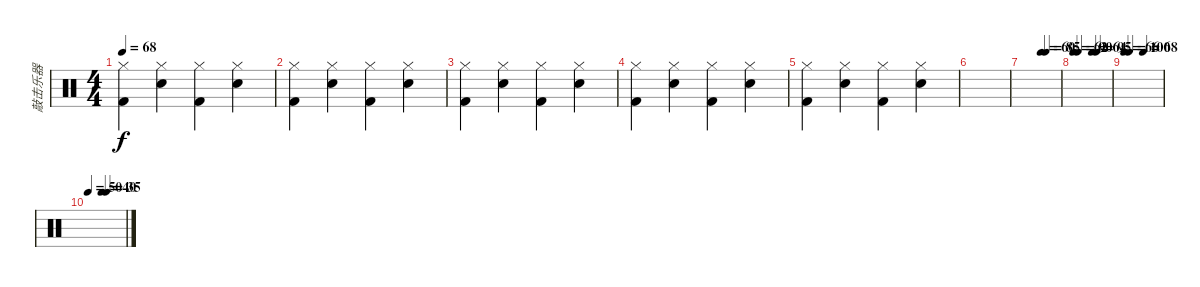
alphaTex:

\track ("敲击乐器" "敲击乐器") {instrument percussion}
\staff {score}
\articulation defaults
\ts (4 4)
\tempo 68
\clef neutral
\ks c
("Kick (hit) 2" "Hi-Hat (closed)").4{dy f} ("Snare (hit) 2" "Hi-Hat (closed)").4 ("Kick (hit) 2" "Hi-Hat (closed)").4 ("Snare (hit) 2" "Hi-Hat (closed)").4 |
("Kick (hit) 2" "Hi-Hat (closed)").4 ("Snare (hit) 2" "Hi-Hat (closed)").4 ("Kick (hit) 2" "Hi-Hat (closed)").4 ("Snare (hit) 2" "Hi-Hat (closed)").4 |
("Kick (hit) 2" "Hi-Hat (closed)").4 ("Snare (hit) 2" "Hi-Hat (closed)").4 ("Kick (hit) 2" "Hi-Hat (closed)").4 ("Snare (hit) 2" "Hi-Hat (closed)").4 |
("Kick (hit) 2" "Hi-Hat (closed)").4 ("Snare (hit) 2" "Hi-Hat (closed)").4 ("Kick (hit) 2" "Hi-Hat (closed)").4 ("Snare (hit) 2" "Hi-Hat (closed)").4 |
("Kick (hit) 2" "Hi-Hat (closed)").4 ("Snare (hit) 2" "Hi-Hat (closed)").4 ("Kick (hit) 2" "Hi-Hat (closed)").4 ("Snare (hit) 2" "Hi-Hat (closed)").4 |
|
\tempo (60 0.5)
\tempo (85 0.625)
|
\tempo 62
\tempo (90 0.125)
\tempo (64 0.5)
\tempo (95 0.625)
|
\tempo 66
\tempo (100 0.125)
\tempo (68 0.5)
|
\tempo 50
\tempo (40 0.375)
\tempo (35 0.5)
